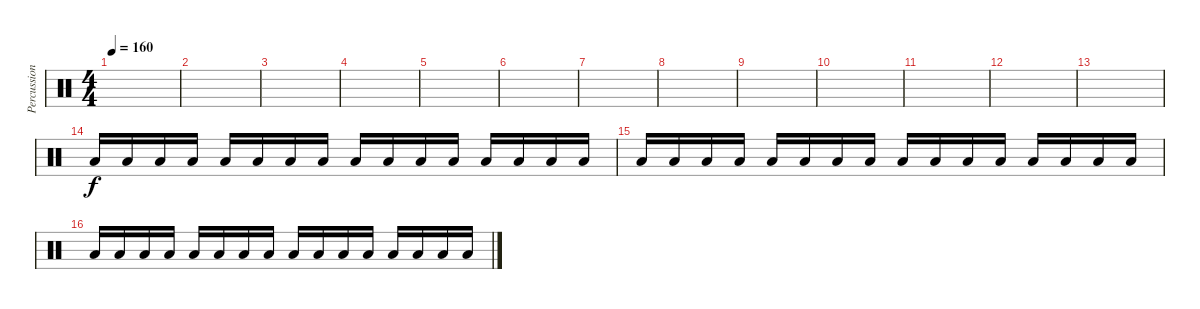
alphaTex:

\track ("Percussions" "Percussion") {instrument percussion}
\staff {score}
\articulation defaults
\ts (4 4)
\tempo 160
\clef neutral
\ks c
|
|
|
|
|
|
|
|
|
|
|
|
|
"Low Floor Tom (hit)".16 "Low Floor Tom (hit)".16 "Low Floor Tom (hit)".16 "Low Floor Tom (hit)".16 "Low Floor Tom (hit)".16 "Low Floor Tom (hit)".16 "Low Floor Tom (hit)".16 "Low Floor Tom (hit)".16 "Low Floor Tom (hit)".16 "Low Floor Tom (hit)".16 "Low Floor Tom (hit)".16 "Low Floor Tom (hit)".16 "Low Floor Tom (hit)".16 "Low Floor Tom (hit)".16 "Low Floor Tom (hit)".16 "Low Floor Tom (hit)".16 |
"Low Floor Tom (hit)".16 "Low Floor Tom (hit)".16 "Low Floor Tom (hit)".16 "Low Floor Tom (hit)".16 "Low Floor Tom (hit)".16 "Low Floor Tom (hit)".16 "Low Floor Tom (hit)".16 "Low Floor Tom (hit)".16 "Low Floor Tom (hit)".16 "Low Floor Tom (hit)".16 "Low Floor Tom (hit)".16 "Low Floor Tom (hit)".16 "Low Floor Tom (hit)".16 "Low Floor Tom (hit)".16 "Low Floor Tom (hit)".16 "Low Floor Tom (hit)".16 |
"Low Floor Tom (hit)".16 "Low Floor Tom (hit)".16 "Low Floor Tom (hit)".16 "Low Floor Tom (hit)".16 "Low Floor Tom (hit)".16 "Low Floor Tom (hit)".16 "Low Floor Tom (hit)".16 "Low Floor Tom (hit)".16 "Low Floor Tom (hit)".16 "Low Floor Tom (hit)".16 "Low Floor Tom (hit)".16 "Low Floor Tom (hit)".16 "Low Floor Tom (hit)".16 "Low Floor Tom (hit)".16 "Low Floor Tom (hit)".16 "Low Floor Tom (hit)".16
